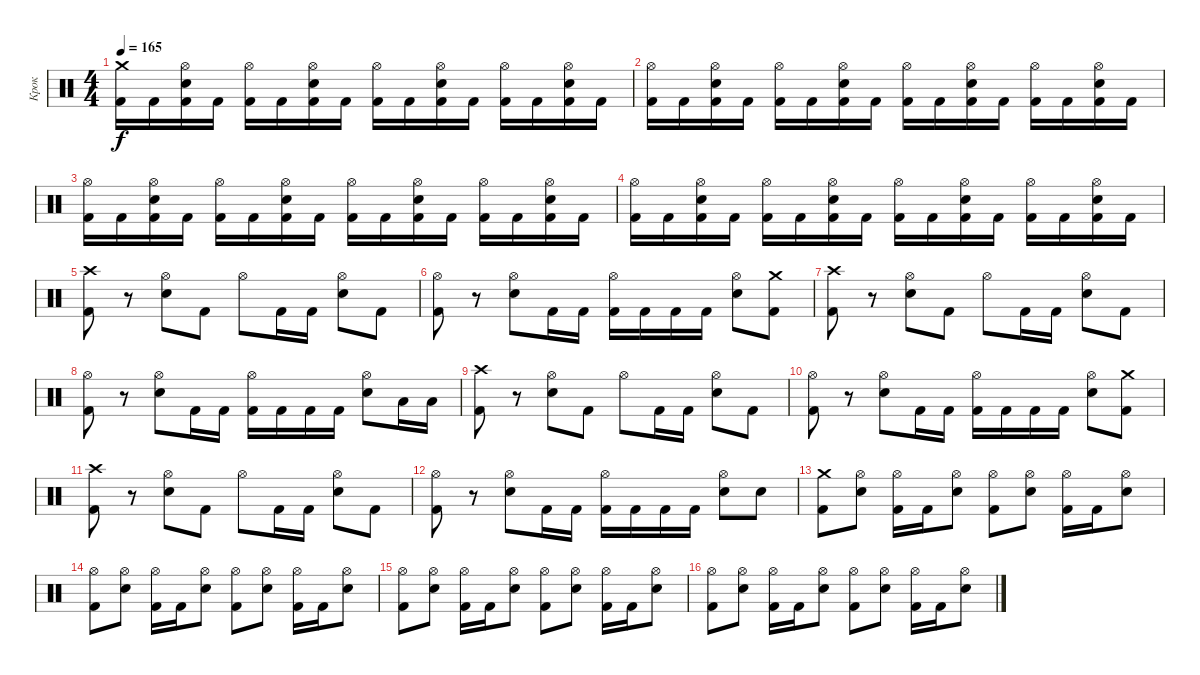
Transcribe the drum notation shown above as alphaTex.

\track ("Крок" "Крок") {instrument percussion}
\staff {score}
\articulation defaults
\ts (4 4)
\tempo 165
\clef neutral
\ks c
("Kick (hit) 2" "Crash medium (hit)").16{dy f} "Kick (hit) 2".16 ("Kick (hit) 2" "Electric Snare (hit)" "Hi-Hat (open)").16 "Kick (hit) 2".16 ("Kick (hit) 2" "Hi-Hat (open)").16 "Kick (hit) 2".16 ("Kick (hit) 2" "Electric Snare (hit)" "Hi-Hat (open)").16 "Kick (hit) 2".16 ("Kick (hit) 2" "Hi-Hat (open)").16 "Kick (hit) 2".16 ("Kick (hit) 2" "Electric Snare (hit)" "Hi-Hat (open)").16 "Kick (hit) 2".16 ("Kick (hit) 2" "Hi-Hat (open)").16 "Kick (hit) 2".16 ("Kick (hit) 2" "Electric Snare (hit)" "Hi-Hat (open)").16 "Kick (hit) 2".16 |
("Kick (hit) 2" "Hi-Hat (open)").16 "Kick (hit) 2".16 ("Kick (hit) 2" "Electric Snare (hit)" "Hi-Hat (open)").16 "Kick (hit) 2".16 ("Kick (hit) 2" "Hi-Hat (open)").16 "Kick (hit) 2".16 ("Kick (hit) 2" "Electric Snare (hit)" "Hi-Hat (open)").16 "Kick (hit) 2".16 ("Kick (hit) 2" "Hi-Hat (open)").16 "Kick (hit) 2".16 ("Kick (hit) 2" "Electric Snare (hit)" "Hi-Hat (open)").16 "Kick (hit) 2".16 ("Kick (hit) 2" "Hi-Hat (open)").16 "Kick (hit) 2".16 ("Kick (hit) 2" "Electric Snare (hit)" "Hi-Hat (open)").16 "Kick (hit) 2".16 |
("Kick (hit) 2" "Hi-Hat (open)").16 "Kick (hit) 2".16 ("Kick (hit) 2" "Electric Snare (hit)" "Hi-Hat (open)").16 "Kick (hit) 2".16 ("Kick (hit) 2" "Hi-Hat (open)").16 "Kick (hit) 2".16 ("Kick (hit) 2" "Electric Snare (hit)" "Hi-Hat (open)").16 "Kick (hit) 2".16 ("Kick (hit) 2" "Hi-Hat (open)").16 "Kick (hit) 2".16 ("Kick (hit) 2" "Electric Snare (hit)" "Hi-Hat (open)").16 "Kick (hit) 2".16 ("Kick (hit) 2" "Hi-Hat (open)").16 "Kick (hit) 2".16 ("Kick (hit) 2" "Electric Snare (hit)" "Hi-Hat (open)").16 "Kick (hit) 2".16 |
("Kick (hit) 2" "Hi-Hat (open)").16 "Kick (hit) 2".16 ("Kick (hit) 2" "Electric Snare (hit)" "Hi-Hat (open)").16 "Kick (hit) 2".16 ("Kick (hit) 2" "Hi-Hat (open)").16 "Kick (hit) 2".16 ("Kick (hit) 2" "Electric Snare (hit)" "Hi-Hat (open)").16 "Kick (hit) 2".16 ("Kick (hit) 2" "Hi-Hat (open)").16 "Kick (hit) 2".16 ("Kick (hit) 2" "Electric Snare (hit)" "Hi-Hat (open)").16 "Kick (hit) 2".16 ("Kick (hit) 2" "Hi-Hat (open)").16 "Kick (hit) 2".16 ("Kick (hit) 2" "Electric Snare (hit)" "Hi-Hat (open)").16 "Kick (hit) 2".16 |
("Crash high (hit)" "Kick (hit) 2").8 r.8 ("Hi-Hat (open)" "Electric Snare (hit)").8 "Kick (hit) 2".8 "Hi-Hat (open)".8 "Kick (hit) 2".16 "Kick (hit) 2".16 ("Hi-Hat (open)" "Electric Snare (hit)").8 "Kick (hit) 2".8 |
("Hi-Hat (open)" "Kick (hit) 2").8 r.8 ("Hi-Hat (open)" "Electric Snare (hit)").8 "Kick (hit) 2".16 "Kick (hit) 2".16 ("Hi-Hat (open)" "Kick (hit) 2").16 "Kick (hit) 2".16 "Kick (hit) 2".16 "Kick (hit) 2".16 ("Hi-Hat (open)" "Electric Snare (hit)").8 ("Crash medium (hit)" "Kick (hit) 2").8 |
("Crash high (hit)" "Kick (hit) 2").8 r.8 ("Hi-Hat (open)" "Electric Snare (hit)").8 "Kick (hit) 2".8 "Hi-Hat (open)".8 "Kick (hit) 2".16 "Kick (hit) 2".16 ("Hi-Hat (open)" "Electric Snare (hit)").8 "Kick (hit) 2".8 |
("Hi-Hat (open)" "Kick (hit) 2").8 r.8 ("Hi-Hat (open)" "Electric Snare (hit)").8 "Kick (hit) 2".16 "Kick (hit) 2".16 ("Hi-Hat (open)" "Kick (hit) 2").16 "Kick (hit) 2".16 "Kick (hit) 2".16 "Kick (hit) 2".16 ("Hi-Hat (open)" "Electric Snare (hit)").8 "Low Tom (hit)".16 "Low Tom (hit)".16 |
("Crash high (hit)" "Kick (hit) 2").8 r.8 ("Hi-Hat (open)" "Electric Snare (hit)").8 "Kick (hit) 2".8 "Hi-Hat (open)".8 "Kick (hit) 2".16 "Kick (hit) 2".16 ("Hi-Hat (open)" "Electric Snare (hit)").8 "Kick (hit) 2".8 |
("Hi-Hat (open)" "Kick (hit) 2").8 r.8 ("Hi-Hat (open)" "Electric Snare (hit)").8 "Kick (hit) 2".16 "Kick (hit) 2".16 ("Hi-Hat (open)" "Kick (hit) 2").16 "Kick (hit) 2".16 "Kick (hit) 2".16 "Kick (hit) 2".16 ("Hi-Hat (open)" "Electric Snare (hit)").8 ("Crash medium (hit)" "Kick (hit) 2").8 |
("Crash high (hit)" "Kick (hit) 2").8 r.8 ("Hi-Hat (open)" "Electric Snare (hit)").8 "Kick (hit) 2".8 "Hi-Hat (open)".8 "Kick (hit) 2".16 "Kick (hit) 2".16 ("Hi-Hat (open)" "Electric Snare (hit)").8 "Kick (hit) 2".8 |
("Hi-Hat (open)" "Kick (hit) 2").8 r.8 ("Hi-Hat (open)" "Electric Snare (hit)").8 "Kick (hit) 2".16 "Kick (hit) 2".16 ("Hi-Hat (open)" "Kick (hit) 2").16 "Kick (hit) 2".16 "Kick (hit) 2".16 "Kick (hit) 2".16 ("Hi-Hat (open)" "Electric Snare (hit)").8 "Electric Snare (hit)".8 |
("Crash medium (hit)" "Kick (hit) 2").8 ("Hi-Hat (open)" "Electric Snare (hit)").8 ("Hi-Hat (open)" "Kick (hit) 2").16 "Kick (hit) 2".16 ("Hi-Hat (open)" "Electric Snare (hit)").8 ("Hi-Hat (open)" "Kick (hit) 2").8 ("Hi-Hat (open)" "Electric Snare (hit)").8 ("Hi-Hat (open)" "Kick (hit) 2").16 "Kick (hit) 2".16 ("Hi-Hat (open)" "Electric Snare (hit)").8 |
("Hi-Hat (open)" "Kick (hit) 2").8 ("Hi-Hat (open)" "Electric Snare (hit)").8 ("Hi-Hat (open)" "Kick (hit) 2").16 "Kick (hit) 2".16 ("Hi-Hat (open)" "Electric Snare (hit)").8 ("Hi-Hat (open)" "Kick (hit) 2").8 ("Hi-Hat (open)" "Electric Snare (hit)").8 ("Hi-Hat (open)" "Kick (hit) 2").16 "Kick (hit) 2".16 ("Hi-Hat (open)" "Electric Snare (hit)").8 |
("Hi-Hat (open)" "Kick (hit) 2").8 ("Hi-Hat (open)" "Electric Snare (hit)").8 ("Hi-Hat (open)" "Kick (hit) 2").16 "Kick (hit) 2".16 ("Hi-Hat (open)" "Electric Snare (hit)").8 ("Hi-Hat (open)" "Kick (hit) 2").8 ("Hi-Hat (open)" "Electric Snare (hit)").8 ("Hi-Hat (open)" "Kick (hit) 2").16 "Kick (hit) 2".16 ("Hi-Hat (open)" "Electric Snare (hit)").8 |
("Hi-Hat (open)" "Kick (hit) 2").8 ("Hi-Hat (open)" "Electric Snare (hit)").8 ("Hi-Hat (open)" "Kick (hit) 2").16 "Kick (hit) 2".16 ("Hi-Hat (open)" "Electric Snare (hit)").8 ("Hi-Hat (open)" "Kick (hit) 2").8 ("Hi-Hat (open)" "Electric Snare (hit)").8 ("Hi-Hat (open)" "Kick (hit) 2").16 "Kick (hit) 2".16 ("Hi-Hat (open)" "Electric Snare (hit)").8
